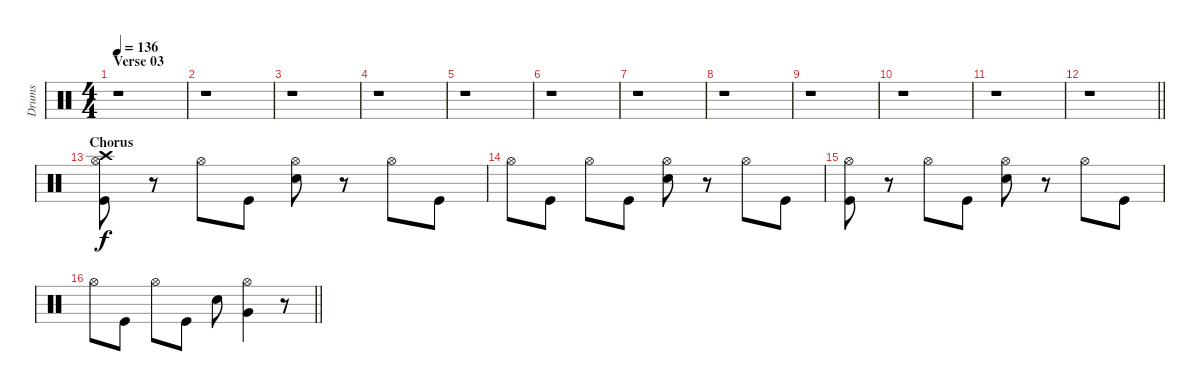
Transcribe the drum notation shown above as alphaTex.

\track ("Drums" "Drums") {instrument percussion}
\staff {score}
\articulation defaults
\ts (4 4)
\section ("" "Verse 03")
\tempo 136
\clef neutral
\ks c
r.1{dy f} |
r.1 |
r.1 |
r.1 |
r.1 |
r.1 |
r.1 |
r.1 |
r.1 |
r.1 |
r.1 |
\barLineRight lightlight
r.1 |
\section ("" "Chorus")
("Crash high (hit)" "Kick (hit)" "Hi-Hat (open)").8 r.8 "Hi-Hat (open)".8 "Kick (hit)".8 ("Snare (hit) 2" "Hi-Hat (open)").8 r.8 "Hi-Hat (open)".8 "Kick (hit)".8 |
"Hi-Hat (open)".8 "Kick (hit)".8 "Hi-Hat (open)".8 "Kick (hit)".8 ("Snare (hit) 2" "Hi-Hat (open)").8 r.8 "Hi-Hat (open)".8 "Kick (hit)".8 |
("Kick (hit)" "Hi-Hat (open)").8 r.8 "Hi-Hat (open)".8 "Kick (hit)".8 ("Snare (hit) 2" "Hi-Hat (open)").8 r.8 "Hi-Hat (open)".8 "Kick (hit)".8 |
\barLineRight lightlight "Hi-Hat (open)".8 "Kick (hit)".8 "Hi-Hat (open)".8 "Kick (hit)".8 "Snare (hit) 2".8
("Very Low Tom (hit)" "Hi-Hat (open)").4 r.8
